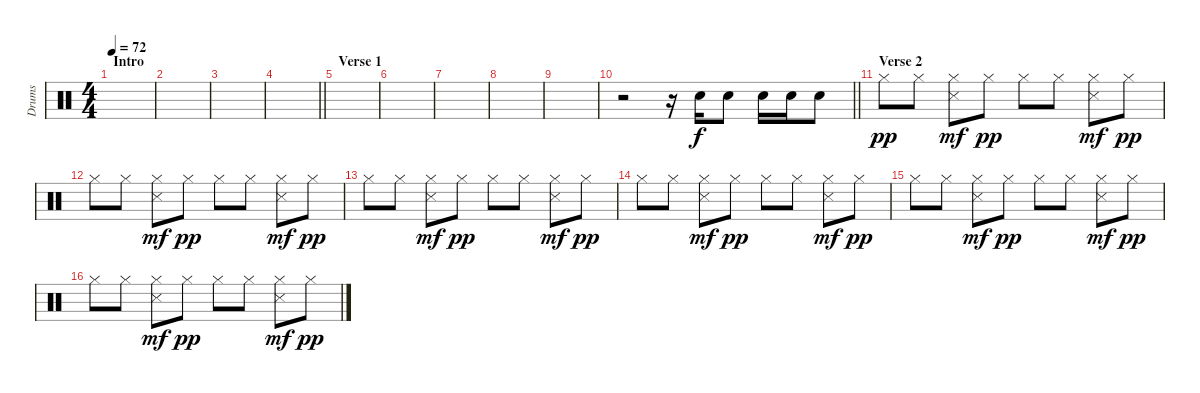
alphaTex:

\track ("Drums" "Drums") {instrument percussion}
\staff {score}
\articulation defaults
\ts (4 4)
\section ("" "Intro")
\tempo 72
\clef neutral
\ks c
|
|
|
\barLineRight lightlight
|
\section ("" "Verse 1")
|
|
|
|
|
\barLineRight lightlight
r.2 r.16 "Snare (hit) 2".16 "Snare (hit) 2".8 "Snare (hit) 2".16 "Snare (hit) 2".16 "Snare (hit) 2".8 |
\section ("" "Verse 2")
"Hi-Hat (closed)".8{dy pp} "Hi-Hat (closed)".8 ("Hi-Hat (closed)" "Snare (side stick) 3").8{dy mf} "Hi-Hat (closed)".8{dy pp} "Hi-Hat (closed)".8 "Hi-Hat (closed)".8 ("Hi-Hat (closed)" "Snare (side stick) 3").8{dy mf} "Hi-Hat (closed)".8{dy pp} |
"Hi-Hat (closed)".8 "Hi-Hat (closed)".8 ("Hi-Hat (closed)" "Snare (side stick) 3").8{dy mf} "Hi-Hat (closed)".8{dy pp} "Hi-Hat (closed)".8 "Hi-Hat (closed)".8 ("Hi-Hat (closed)" "Snare (side stick) 3").8{dy mf} "Hi-Hat (closed)".8{dy pp} |
"Hi-Hat (closed)".8 "Hi-Hat (closed)".8 ("Hi-Hat (closed)" "Snare (side stick) 3").8{dy mf} "Hi-Hat (closed)".8{dy pp} "Hi-Hat (closed)".8 "Hi-Hat (closed)".8 ("Hi-Hat (closed)" "Snare (side stick) 3").8{dy mf} "Hi-Hat (closed)".8{dy pp} |
"Hi-Hat (closed)".8 "Hi-Hat (closed)".8 ("Hi-Hat (closed)" "Snare (side stick) 3").8{dy mf} "Hi-Hat (closed)".8{dy pp} "Hi-Hat (closed)".8 "Hi-Hat (closed)".8 ("Hi-Hat (closed)" "Snare (side stick) 3").8{dy mf} "Hi-Hat (closed)".8{dy pp} |
"Hi-Hat (closed)".8 "Hi-Hat (closed)".8 ("Hi-Hat (closed)" "Snare (side stick) 3").8{dy mf} "Hi-Hat (closed)".8{dy pp} "Hi-Hat (closed)".8 "Hi-Hat (closed)".8 ("Hi-Hat (closed)" "Snare (side stick) 3").8{dy mf} "Hi-Hat (closed)".8{dy pp} |
"Hi-Hat (closed)".8 "Hi-Hat (closed)".8 ("Hi-Hat (closed)" "Snare (side stick) 3").8{dy mf} "Hi-Hat (closed)".8{dy pp} "Hi-Hat (closed)".8 "Hi-Hat (closed)".8 ("Hi-Hat (closed)" "Snare (side stick) 3").8{dy mf} "Hi-Hat (closed)".8{dy pp}
